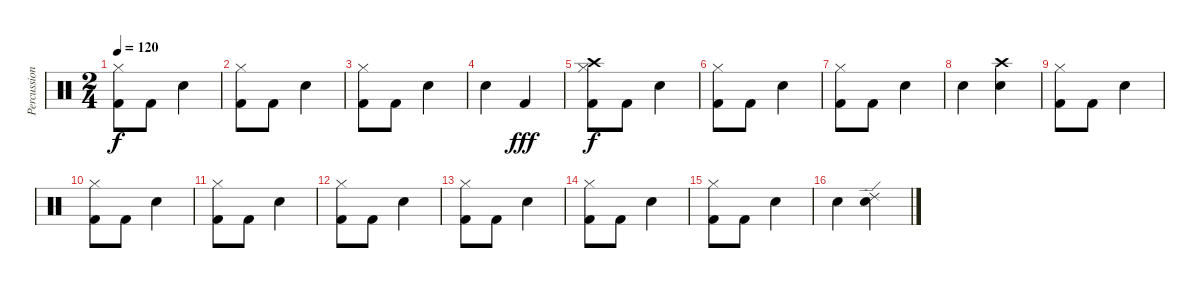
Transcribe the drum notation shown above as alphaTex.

\track ("Percussion" "Percussion") {instrument percussion}
\staff {score}
\articulation defaults
\ts (2 4)
\tempo 120
\clef neutral
\ks c
("Hi-Hat (closed)" "Kick (hit) 2").8{dy f} "Kick (hit) 2".8 "Snare (hit) 2".4 |
("Hi-Hat (closed)" "Kick (hit) 2").8 "Kick (hit) 2".8 "Snare (hit) 2".4 |
("Hi-Hat (closed)" "Kick (hit) 2").8 "Kick (hit) 2".8 "Snare (hit) 2".4 |
"Snare (hit) 2".4 "Kick (hit) 2".4{dy fff} |
("Crash high (hit)" "Hi-Hat (closed)" "Kick (hit) 2").8{dy f} "Kick (hit) 2".8 "Snare (hit) 2".4 |
("Hi-Hat (closed)" "Kick (hit) 2").8 "Kick (hit) 2".8 "Snare (hit) 2".4 |
("Hi-Hat (closed)" "Kick (hit) 2").8 "Kick (hit) 2".8 "Snare (hit) 2".4 |
"Snare (hit) 2".4 ("Crash high (hit)" "Snare (hit) 2").4 |
("Hi-Hat (closed)" "Kick (hit) 2").8 "Kick (hit) 2".8 "Snare (hit) 2".4 |
("Hi-Hat (closed)" "Kick (hit) 2").8 "Kick (hit) 2".8 "Snare (hit) 2".4 |
("Hi-Hat (closed)" "Kick (hit) 2").8 "Kick (hit) 2".8 "Snare (hit) 2".4 |
("Hi-Hat (closed)" "Kick (hit) 2").8 "Kick (hit) 2".8 "Snare (hit) 2".4 |
("Hi-Hat (closed)" "Kick (hit) 2").8 "Kick (hit) 2".8 "Snare (hit) 2".4 |
("Hi-Hat (closed)" "Kick (hit) 2").8 "Kick (hit) 2".8 "Snare (hit) 2".4 |
("Hi-Hat (closed)" "Kick (hit) 2").8 "Kick (hit) 2".8 "Snare (hit) 2".4 |
"Snare (hit) 2".4 ("Ride (edge) 2" "Snare (hit) 2").4
